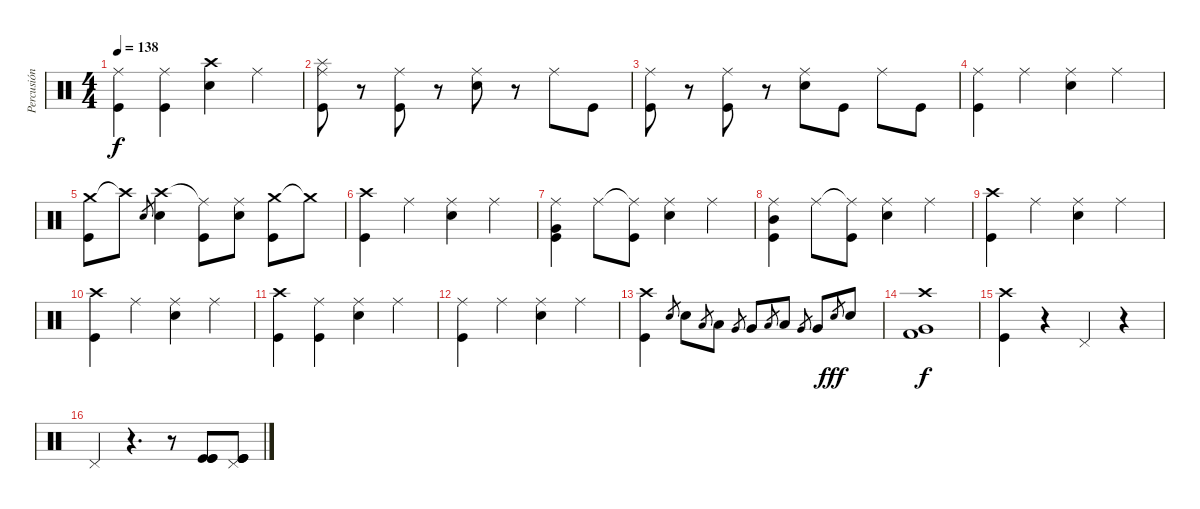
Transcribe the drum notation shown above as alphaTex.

\track ("Percusión" "Percusión") {instrument percussion}
\staff {score}
\articulation defaults
\ts (4 4)
\tempo 138
\clef neutral
\ks c
("Ride (middle)" "Kick (hit)").4{dy f} ("Ride (middle)" "Kick (hit)").4 ("Crash high (hit)" "Electric Snare (hit)").4 "Ride (middle)".4 |
("Ride (middle)" "Splash (hit)" "Kick (hit)").8 r.8 ("Ride (middle)" "Kick (hit)").8 r.8 ("Ride (middle)" "Electric Snare (hit)").8 r.8 "Ride (middle)".8 "Kick (hit)".8 |
("Ride (middle)" "Kick (hit)").8 r.8 ("Ride (middle)" "Kick (hit)").8 r.8 ("Ride (middle)" "Electric Snare (hit)").8 "Kick (hit)".8 "Ride (middle)".8 "Kick (hit)".8 |
("Ride (middle)" "Kick (hit)").4 "Ride (middle)".4 ("Ride (middle)" "Electric Snare (hit)").4 "Ride (middle)".4 |
("Crash medium (hit)" "Kick (hit)").8 "Crash high (hit)"{t}.8 "Electric Snare (hit)".8{gr} ("Crash high (hit)" "Electric Snare (hit)").4 ("Ride (middle)"{t} "Kick (hit)").8 ("Ride (middle)" "Electric Snare (hit)").8 ("Crash medium (hit)" "Kick (hit)").8 "Crash medium (hit)"{t}.8 |
("Crash high (hit)" "Kick (hit)").4 "Ride (middle)".4 ("Ride (middle)" "Electric Snare (hit)").4 "Ride (middle)".4 |
("Ride (middle)" "Very Low Tom (hit)" "Kick (hit)").4 "Ride (middle)".8 ("Ride (middle)"{t} "Kick (hit)").8 ("Ride (middle)" "Electric Snare (hit)").4 "Ride (middle)".4 |
("Ride (middle)" "Mid Tom (hit)" "Kick (hit)").4 "Ride (middle)".8 ("Ride (middle)"{t} "Kick (hit)").8 ("Ride (middle)" "Electric Snare (hit)").4 "Ride (middle)".4 |
("Crash high (hit)" "Kick (hit)").4 "Ride (middle)".4 ("Ride (middle)" "Electric Snare (hit)").4 "Ride (middle)".4 |
("Crash high (hit)" "Kick (hit)").4 "Ride (middle)".4 ("Ride (middle)" "Electric Snare (hit)").4 "Ride (middle)".4 |
("Crash high (hit)" "Kick (hit)").4 ("Ride (middle)" "Kick (hit)").4 ("Ride (middle)" "Electric Snare (hit)").4 "Ride (middle)".4 |
("Ride (middle)" "Kick (hit)").4 "Ride (middle)".4 ("Ride (middle)" "Electric Snare (hit)").4 "Ride (middle)".4 |
("Crash high (hit)" "Kick (hit)").4 "Electric Snare (hit)".8{gr} "Electric Snare (hit)".8 "Low Tom (hit)".8{gr} "Low Tom (hit)".8 "Very Low Tom (hit)".8{gr} "Very Low Tom (hit)".8 "Low Floor Tom (hit)".8{gr} "Low Floor Tom (hit)".8 "Very Low Tom (hit)".8{gr} "Very Low Tom (hit)".8 "Electric Snare (hit)".8{gr dy fff} "Electric Snare (hit)".8 |
("Crash high (hit)" "Very Low Tom (hit)" "Kick (hit) 2").1{dy f} |
("Crash high (hit)" "Kick (hit)").4 r.4 "Pedal Hi-Hat (hit)".4 r.4 |
"Pedal Hi-Hat (hit)".4 r.4{d} r.8 ("Kick (hit)" "Kick (hit)" "Kick (hit)").8 ("Pedal Hi-Hat (hit)" "Kick (hit)" "Kick (hit)" "Kick (hit)").8
